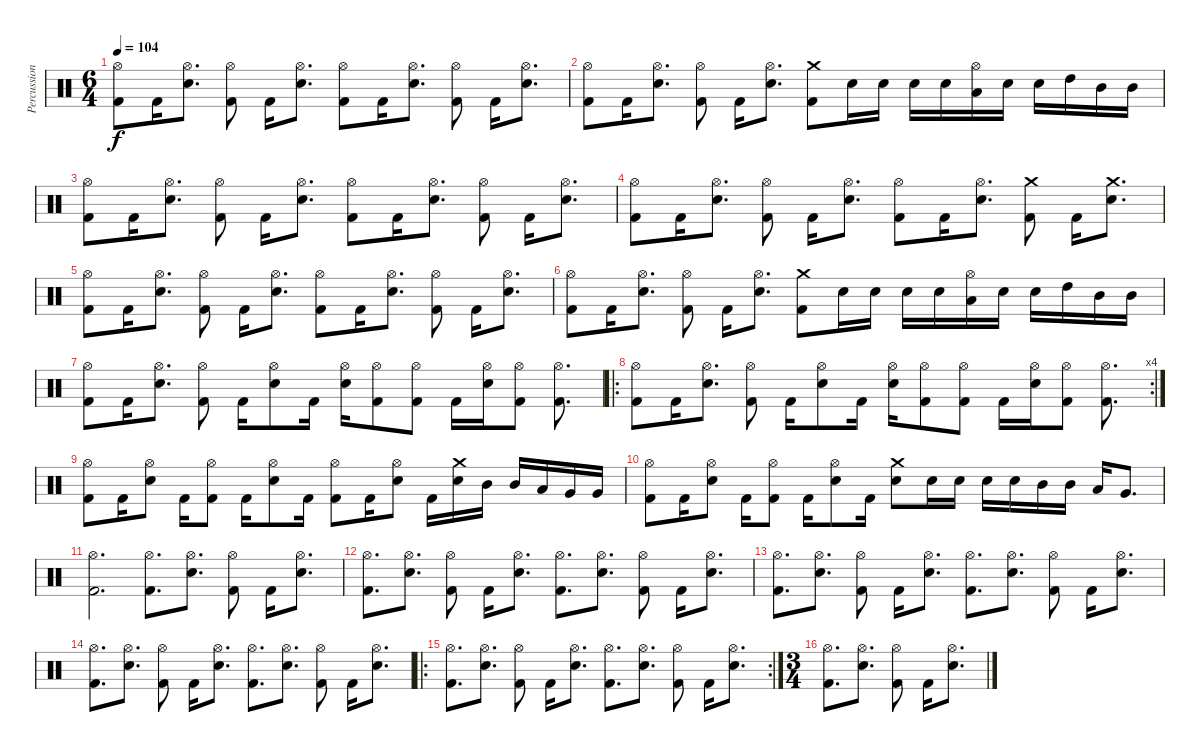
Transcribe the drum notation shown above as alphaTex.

\track ("Percussions" "Percussion") {instrument percussion}
\staff {score}
\articulation defaults
\ts (6 4)
\tempo 104
\clef neutral
\ks c
("Hi-Hat (open)" "Kick (hit) 2").8{dy f} "Kick (hit) 2".16 ("Hi-Hat (open)" "Snare (hit) 2").8{d} ("Hi-Hat (open)" "Kick (hit) 2").8 "Kick (hit) 2".16 ("Hi-Hat (open)" "Snare (hit) 2").8{d} ("Hi-Hat (open)" "Kick (hit) 2").8 "Kick (hit) 2".16 ("Hi-Hat (open)" "Snare (hit) 2").8{d} ("Hi-Hat (open)" "Kick (hit) 2").8 "Kick (hit) 2".16 ("Hi-Hat (open)" "Snare (hit) 2").8{d} |
("Hi-Hat (open)" "Kick (hit) 2").8 "Kick (hit) 2".16 ("Hi-Hat (open)" "Snare (hit) 2").8{d} ("Hi-Hat (open)" "Kick (hit) 2").8 "Kick (hit) 2".16 ("Hi-Hat (open)" "Snare (hit) 2").8{d} ("Crash medium (hit)" "Kick (hit) 2").8 "Snare (hit) 2".16 "Snare (hit) 2".16 "Snare (hit) 2".16 "Snare (hit) 2".16 ("Hi-Hat (open)" "Low Tom (hit)").16 "Snare (hit) 2".16 "Snare (hit) 2".16 "High Tom (hit)".16 "Mid Tom (hit)".16 "Mid Tom (hit)".16 |
("Hi-Hat (open)" "Kick (hit) 2").8 "Kick (hit) 2".16 ("Hi-Hat (open)" "Snare (hit) 2").8{d} ("Hi-Hat (open)" "Kick (hit) 2").8 "Kick (hit) 2".16 ("Hi-Hat (open)" "Snare (hit) 2").8{d} ("Hi-Hat (open)" "Kick (hit) 2").8 "Kick (hit) 2".16 ("Hi-Hat (open)" "Snare (hit) 2").8{d} ("Hi-Hat (open)" "Kick (hit) 2").8 "Kick (hit) 2".16 ("Hi-Hat (open)" "Snare (hit) 2").8{d} |
("Hi-Hat (open)" "Kick (hit) 2").8 "Kick (hit) 2".16 ("Hi-Hat (open)" "Snare (hit) 2").8{d} ("Hi-Hat (open)" "Kick (hit) 2").8 "Kick (hit) 2".16 ("Hi-Hat (open)" "Snare (hit) 2").8{d} ("Hi-Hat (open)" "Kick (hit) 2").8 "Kick (hit) 2".16 ("Hi-Hat (open)" "Snare (hit) 2").8{d} ("Crash medium (hit)" "Kick (hit) 2").8 "Kick (hit) 2".16 ("Crash medium (hit)" "Snare (hit) 2").8{d} |
("Hi-Hat (open)" "Kick (hit) 2").8 "Kick (hit) 2".16 ("Hi-Hat (open)" "Snare (hit) 2").8{d} ("Hi-Hat (open)" "Kick (hit) 2").8 "Kick (hit) 2".16 ("Hi-Hat (open)" "Snare (hit) 2").8{d} ("Hi-Hat (open)" "Kick (hit) 2").8 "Kick (hit) 2".16 ("Hi-Hat (open)" "Snare (hit) 2").8{d} ("Hi-Hat (open)" "Kick (hit) 2").8 "Kick (hit) 2".16 ("Hi-Hat (open)" "Snare (hit) 2").8{d} |
("Hi-Hat (open)" "Kick (hit) 2").8 "Kick (hit) 2".16 ("Hi-Hat (open)" "Snare (hit) 2").8{d} ("Hi-Hat (open)" "Kick (hit) 2").8 "Kick (hit) 2".16 ("Hi-Hat (open)" "Snare (hit) 2").8{d} ("Crash medium (hit)" "Kick (hit) 2").8 "Snare (hit) 2".16 "Snare (hit) 2".16 "Snare (hit) 2".16 "Snare (hit) 2".16 ("Hi-Hat (open)" "Low Tom (hit)").16 "Snare (hit) 2".16 "Snare (hit) 2".16 "High Tom (hit)".16 "Mid Tom (hit)".16 "Mid Tom (hit)".16 |
("Hi-Hat (open)" "Kick (hit) 2").8 "Kick (hit) 2".16 ("Hi-Hat (open)" "Snare (hit) 2").8{d} ("Hi-Hat (open)" "Kick (hit) 2").8 "Kick (hit) 2".16 ("Hi-Hat (open)" "Snare (hit) 2").8 "Kick (hit) 2".16 ("Hi-Hat (open)" "Snare (hit) 2").16 ("Hi-Hat (open)" "Kick (hit) 2").8 ("Hi-Hat (open)" "Kick (hit) 2").8 "Kick (hit) 2".16 ("Hi-Hat (open)" "Snare (hit) 2").16 ("Hi-Hat (open)" "Kick (hit) 2").8 ("Hi-Hat (open)" "Kick (hit) 2").8{d} |
\ro
\rc 4
("Hi-Hat (open)" "Kick (hit) 2").8 "Kick (hit) 2".16 ("Hi-Hat (open)" "Snare (hit) 2").8{d} ("Hi-Hat (open)" "Kick (hit) 2").8 "Kick (hit) 2".16 ("Hi-Hat (open)" "Snare (hit) 2").8 "Kick (hit) 2".16 ("Hi-Hat (open)" "Snare (hit) 2").16 ("Hi-Hat (open)" "Kick (hit) 2").8 ("Hi-Hat (open)" "Kick (hit) 2").8 "Kick (hit) 2".16 ("Hi-Hat (open)" "Snare (hit) 2").16 ("Hi-Hat (open)" "Kick (hit) 2").8 ("Hi-Hat (open)" "Kick (hit) 2").8{d} |
("Hi-Hat (open)" "Kick (hit) 2").8 "Kick (hit) 2".16 ("Hi-Hat (open)" "Snare (hit) 2").8 "Kick (hit) 2".16 ("Hi-Hat (open)" "Kick (hit) 2").8 "Kick (hit) 2".16 ("Hi-Hat (open)" "Snare (hit) 2").8 "Kick (hit) 2".16 ("Hi-Hat (open)" "Kick (hit) 2").8 "Kick (hit) 2".16 ("Hi-Hat (open)" "Snare (hit) 2").8 "Kick (hit) 2".16 ("Crash medium (hit)" "Snare (hit) 2").16 "Mid Tom (hit)".16 "Mid Tom (hit)".16 "Low Tom (hit)".16 "Very Low Tom (hit)".16 "Very Low Tom (hit)".16 |
("Hi-Hat (open)" "Kick (hit) 2").8 "Kick (hit) 2".16 ("Hi-Hat (open)" "Snare (hit) 2").8 "Kick (hit) 2".16 ("Hi-Hat (open)" "Kick (hit) 2").8 "Kick (hit) 2".16 ("Hi-Hat (open)" "Snare (hit) 2").8 "Kick (hit) 2".16 ("Crash medium (hit)" "Snare (hit) 2").8 "Snare (hit) 2".16 "Snare (hit) 2".16 "Snare (hit) 2".16 "Snare (hit) 2".16 "Mid Tom (hit)".16 "Mid Tom (hit)".16 "Low Tom (hit)".16 "Very Low Tom (hit)".8{d} |
("Hi-Hat (open)" "Kick (hit) 2").2{d} ("Hi-Hat (open)" "Kick (hit) 2").8{d} ("Hi-Hat (open)" "Snare (hit) 2").8{d} ("Hi-Hat (open)" "Kick (hit) 2").8 "Kick (hit) 2".16 ("Hi-Hat (open)" "Snare (hit) 2").8{d} |
("Hi-Hat (open)" "Kick (hit) 2").8{d} ("Hi-Hat (open)" "Snare (hit) 2").8{d} ("Hi-Hat (open)" "Kick (hit) 2").8 "Kick (hit) 2".16 ("Hi-Hat (open)" "Snare (hit) 2").8{d} ("Hi-Hat (open)" "Kick (hit) 2").8{d} ("Hi-Hat (open)" "Snare (hit) 2").8{d} ("Hi-Hat (open)" "Kick (hit) 2").8 "Kick (hit) 2".16 ("Hi-Hat (open)" "Snare (hit) 2").8{d} |
("Hi-Hat (open)" "Kick (hit) 2").8{d} ("Hi-Hat (open)" "Snare (hit) 2").8{d} ("Hi-Hat (open)" "Kick (hit) 2").8 "Kick (hit) 2".16 ("Hi-Hat (open)" "Snare (hit) 2").8{d} ("Hi-Hat (open)" "Kick (hit) 2").8{d} ("Hi-Hat (open)" "Snare (hit) 2").8{d} ("Hi-Hat (open)" "Kick (hit) 2").8 "Kick (hit) 2".16 ("Hi-Hat (open)" "Snare (hit) 2").8{d} |
("Hi-Hat (open)" "Kick (hit) 2").8{d} ("Hi-Hat (open)" "Snare (hit) 2").8{d} ("Hi-Hat (open)" "Kick (hit) 2").8 "Kick (hit) 2".16 ("Hi-Hat (open)" "Snare (hit) 2").8{d} ("Hi-Hat (open)" "Kick (hit) 2").8{d} ("Hi-Hat (open)" "Snare (hit) 2").8{d} ("Hi-Hat (open)" "Kick (hit) 2").8 "Kick (hit) 2".16 ("Hi-Hat (open)" "Snare (hit) 2").8{d} |
\ro
\rc 2
("Hi-Hat (open)" "Kick (hit) 2").8{d} ("Hi-Hat (open)" "Snare (hit) 2").8{d} ("Hi-Hat (open)" "Kick (hit) 2").8 "Kick (hit) 2".16 ("Hi-Hat (open)" "Snare (hit) 2").8{d} ("Hi-Hat (open)" "Kick (hit) 2").8{d} ("Hi-Hat (open)" "Snare (hit) 2").8{d} ("Hi-Hat (open)" "Kick (hit) 2").8 "Kick (hit) 2".16 ("Hi-Hat (open)" "Snare (hit) 2").8{d} |
\ts (3 4)
("Hi-Hat (open)" "Kick (hit) 2").8{d} ("Hi-Hat (open)" "Snare (hit) 2").8{d} ("Hi-Hat (open)" "Kick (hit) 2").8 "Kick (hit) 2".16 ("Hi-Hat (open)" "Snare (hit) 2").8{d}
